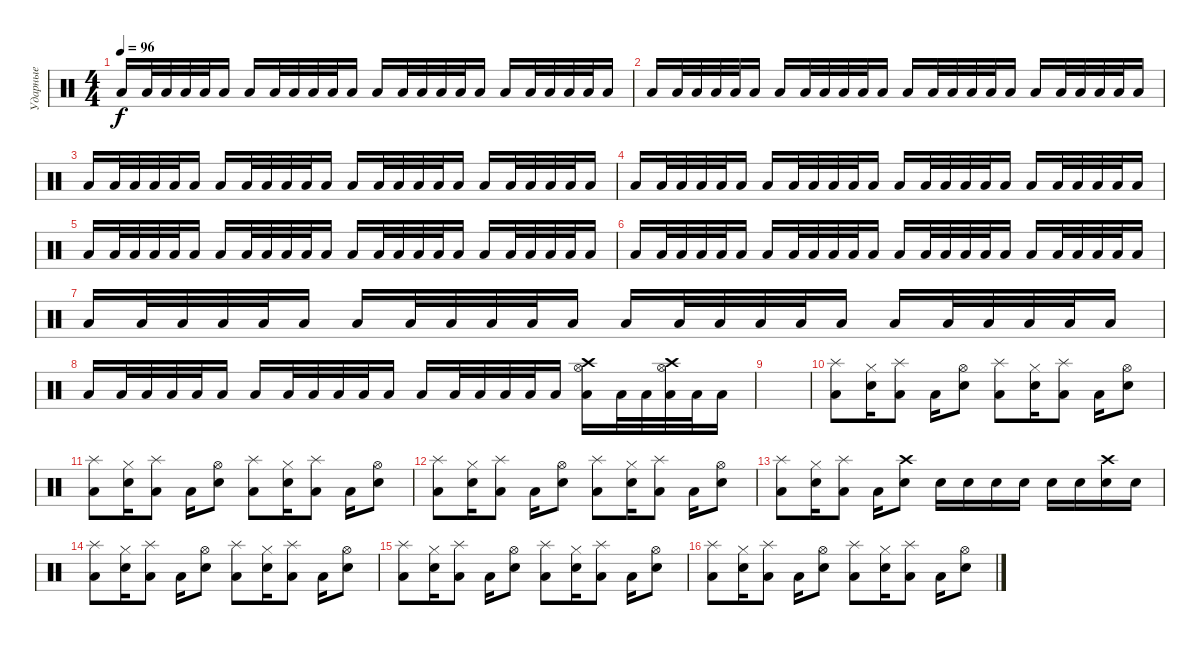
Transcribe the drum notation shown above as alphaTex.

\track ("Ударные" "Ударные") {instrument percussion}
\staff {score}
\articulation defaults
\ts (4 4)
\tempo 96
\clef neutral
\ks c "Low Floor Tom (hit)".16{dy f} "Low Floor Tom (hit)".32 "Low Floor Tom (hit)".32 "Low Floor Tom (hit)".32 "Low Floor Tom (hit)".32 "Low Floor Tom (hit)".16 "Low Floor Tom (hit)".16 "Low Floor Tom (hit)".32 "Low Floor Tom (hit)".32 "Low Floor Tom (hit)".32 "Low Floor Tom (hit)".32 "Low Floor Tom (hit)".16 "Low Floor Tom (hit)".16 "Low Floor Tom (hit)".32 "Low Floor Tom (hit)".32 "Low Floor Tom (hit)".32 "Low Floor Tom (hit)".32 "Low Floor Tom (hit)".16 "Low Floor Tom (hit)".16 "Low Floor Tom (hit)".32 "Low Floor Tom (hit)".32 "Low Floor Tom (hit)".32 "Low Floor Tom (hit)".32 "Low Floor Tom (hit)".16
|
"Low Floor Tom (hit)".16 "Low Floor Tom (hit)".32 "Low Floor Tom (hit)".32 "Low Floor Tom (hit)".32 "Low Floor Tom (hit)".32 "Low Floor Tom (hit)".16 "Low Floor Tom (hit)".16 "Low Floor Tom (hit)".32 "Low Floor Tom (hit)".32 "Low Floor Tom (hit)".32 "Low Floor Tom (hit)".32 "Low Floor Tom (hit)".16 "Low Floor Tom (hit)".16 "Low Floor Tom (hit)".32 "Low Floor Tom (hit)".32 "Low Floor Tom (hit)".32 "Low Floor Tom (hit)".32 "Low Floor Tom (hit)".16 "Low Floor Tom (hit)".16 "Low Floor Tom (hit)".32 "Low Floor Tom (hit)".32 "Low Floor Tom (hit)".32 "Low Floor Tom (hit)".32 "Low Floor Tom (hit)".16 |
"Low Floor Tom (hit)".16 "Low Floor Tom (hit)".32 "Low Floor Tom (hit)".32 "Low Floor Tom (hit)".32 "Low Floor Tom (hit)".32 "Low Floor Tom (hit)".16 "Low Floor Tom (hit)".16 "Low Floor Tom (hit)".32 "Low Floor Tom (hit)".32 "Low Floor Tom (hit)".32 "Low Floor Tom (hit)".32 "Low Floor Tom (hit)".16 "Low Floor Tom (hit)".16 "Low Floor Tom (hit)".32 "Low Floor Tom (hit)".32 "Low Floor Tom (hit)".32 "Low Floor Tom (hit)".32 "Low Floor Tom (hit)".16 "Low Floor Tom (hit)".16 "Low Floor Tom (hit)".32 "Low Floor Tom (hit)".32 "Low Floor Tom (hit)".32 "Low Floor Tom (hit)".32 "Low Floor Tom (hit)".16 |
"Low Floor Tom (hit)".16 "Low Floor Tom (hit)".32 "Low Floor Tom (hit)".32 "Low Floor Tom (hit)".32 "Low Floor Tom (hit)".32 "Low Floor Tom (hit)".16 "Low Floor Tom (hit)".16 "Low Floor Tom (hit)".32 "Low Floor Tom (hit)".32 "Low Floor Tom (hit)".32 "Low Floor Tom (hit)".32 "Low Floor Tom (hit)".16 "Low Floor Tom (hit)".16 "Low Floor Tom (hit)".32 "Low Floor Tom (hit)".32 "Low Floor Tom (hit)".32 "Low Floor Tom (hit)".32 "Low Floor Tom (hit)".16 "Low Floor Tom (hit)".16 "Low Floor Tom (hit)".32 "Low Floor Tom (hit)".32 "Low Floor Tom (hit)".32 "Low Floor Tom (hit)".32 "Low Floor Tom (hit)".16 |
"Low Floor Tom (hit)".16 "Low Floor Tom (hit)".32 "Low Floor Tom (hit)".32 "Low Floor Tom (hit)".32 "Low Floor Tom (hit)".32 "Low Floor Tom (hit)".16 "Low Floor Tom (hit)".16 "Low Floor Tom (hit)".32 "Low Floor Tom (hit)".32 "Low Floor Tom (hit)".32 "Low Floor Tom (hit)".32 "Low Floor Tom (hit)".16 "Low Floor Tom (hit)".16 "Low Floor Tom (hit)".32 "Low Floor Tom (hit)".32 "Low Floor Tom (hit)".32 "Low Floor Tom (hit)".32 "Low Floor Tom (hit)".16 "Low Floor Tom (hit)".16 "Low Floor Tom (hit)".32 "Low Floor Tom (hit)".32 "Low Floor Tom (hit)".32 "Low Floor Tom (hit)".32 "Low Floor Tom (hit)".16 |
"Low Floor Tom (hit)".16 "Low Floor Tom (hit)".32 "Low Floor Tom (hit)".32 "Low Floor Tom (hit)".32 "Low Floor Tom (hit)".32 "Low Floor Tom (hit)".16 "Low Floor Tom (hit)".16 "Low Floor Tom (hit)".32 "Low Floor Tom (hit)".32 "Low Floor Tom (hit)".32 "Low Floor Tom (hit)".32 "Low Floor Tom (hit)".16 "Low Floor Tom (hit)".16 "Low Floor Tom (hit)".32 "Low Floor Tom (hit)".32 "Low Floor Tom (hit)".32 "Low Floor Tom (hit)".32 "Low Floor Tom (hit)".16 "Low Floor Tom (hit)".16 "Low Floor Tom (hit)".32 "Low Floor Tom (hit)".32 "Low Floor Tom (hit)".32 "Low Floor Tom (hit)".32 "Low Floor Tom (hit)".16 |
"Low Floor Tom (hit)".16 "Low Floor Tom (hit)".32 "Low Floor Tom (hit)".32 "Low Floor Tom (hit)".32 "Low Floor Tom (hit)".32 "Low Floor Tom (hit)".16 "Low Floor Tom (hit)".16 "Low Floor Tom (hit)".32 "Low Floor Tom (hit)".32 "Low Floor Tom (hit)".32 "Low Floor Tom (hit)".32 "Low Floor Tom (hit)".16 "Low Floor Tom (hit)".16 "Low Floor Tom (hit)".32 "Low Floor Tom (hit)".32 "Low Floor Tom (hit)".32 "Low Floor Tom (hit)".32 "Low Floor Tom (hit)".16 "Low Floor Tom (hit)".16 "Low Floor Tom (hit)".32 "Low Floor Tom (hit)".32 "Low Floor Tom (hit)".32 "Low Floor Tom (hit)".32 "Low Floor Tom (hit)".16 |
"Low Floor Tom (hit)".16 "Low Floor Tom (hit)".32 "Low Floor Tom (hit)".32 "Low Floor Tom (hit)".32 "Low Floor Tom (hit)".32 "Low Floor Tom (hit)".16 "Low Floor Tom (hit)".16 "Low Floor Tom (hit)".32 "Low Floor Tom (hit)".32 "Low Floor Tom (hit)".32 "Low Floor Tom (hit)".32 "Low Floor Tom (hit)".16 "Low Floor Tom (hit)".16 "Low Floor Tom (hit)".32 "Low Floor Tom (hit)".32 "Low Floor Tom (hit)".32 "Low Floor Tom (hit)".32 "Low Floor Tom (hit)".16 ("Low Floor Tom (hit)" "Crash high (hit)" "Hi-Hat (open)").16 "Low Floor Tom (hit)".32 "Low Floor Tom (hit)".32 ("Low Floor Tom (hit)" "Hi-Hat (open)" "Crash high (hit)").32 "Low Floor Tom (hit)".32 "Low Floor Tom (hit)".16 |
|
("Low Floor Tom (hit)" "Splash (hit)").8 ("Electric Snare (hit)" "Hi-Hat (closed)").16 ("Low Floor Tom (hit)" "Splash (hit)").8 "Low Floor Tom (hit)".16 ("Electric Snare (hit)" "Hi-Hat (open)").8 ("Low Floor Tom (hit)" "Splash (hit)").8 ("Electric Snare (hit)" "Hi-Hat (closed)").16 ("Low Floor Tom (hit)" "Splash (hit)").8 "Low Floor Tom (hit)".16 ("Electric Snare (hit)" "Hi-Hat (open)").8 |
("Low Floor Tom (hit)" "Splash (hit)").8 ("Electric Snare (hit)" "Hi-Hat (closed)").16 ("Low Floor Tom (hit)" "Splash (hit)").8 "Low Floor Tom (hit)".16 ("Electric Snare (hit)" "Hi-Hat (open)").8 ("Low Floor Tom (hit)" "Splash (hit)").8 ("Electric Snare (hit)" "Hi-Hat (closed)").16 ("Low Floor Tom (hit)" "Splash (hit)").8 "Low Floor Tom (hit)".16 ("Electric Snare (hit)" "Hi-Hat (open)").8 |
("Low Floor Tom (hit)" "Splash (hit)").8 ("Electric Snare (hit)" "Hi-Hat (closed)").16 ("Low Floor Tom (hit)" "Splash (hit)").8 "Low Floor Tom (hit)".16 ("Electric Snare (hit)" "Hi-Hat (open)").8 ("Low Floor Tom (hit)" "Splash (hit)").8 ("Electric Snare (hit)" "Hi-Hat (closed)").16 ("Low Floor Tom (hit)" "Splash (hit)").8 "Low Floor Tom (hit)".16 ("Electric Snare (hit)" "Hi-Hat (open)").8 |
("Low Floor Tom (hit)" "Splash (hit)").8 ("Electric Snare (hit)" "Hi-Hat (closed)").16 ("Low Floor Tom (hit)" "Splash (hit)").8 "Low Floor Tom (hit)".16 ("Electric Snare (hit)" "Crash high (hit)").8 "Electric Snare (hit)".16 "Electric Snare (hit)".16 "Electric Snare (hit)".16 "Electric Snare (hit)".16 "Electric Snare (hit)".16 "Electric Snare (hit)".16 ("Electric Snare (hit)" "Crash high (hit)").16 "Electric Snare (hit)".16 |
("Low Floor Tom (hit)" "Splash (hit)").8 ("Electric Snare (hit)" "Hi-Hat (closed)").16 ("Low Floor Tom (hit)" "Splash (hit)").8 "Low Floor Tom (hit)".16 ("Electric Snare (hit)" "Hi-Hat (open)").8 ("Low Floor Tom (hit)" "Splash (hit)").8 ("Electric Snare (hit)" "Hi-Hat (closed)").16 ("Low Floor Tom (hit)" "Splash (hit)").8 "Low Floor Tom (hit)".16 ("Electric Snare (hit)" "Hi-Hat (open)").8 |
("Low Floor Tom (hit)" "Splash (hit)").8 ("Electric Snare (hit)" "Hi-Hat (closed)").16 ("Low Floor Tom (hit)" "Splash (hit)").8 "Low Floor Tom (hit)".16 ("Electric Snare (hit)" "Hi-Hat (open)").8 ("Low Floor Tom (hit)" "Splash (hit)").8 ("Electric Snare (hit)" "Hi-Hat (closed)").16 ("Low Floor Tom (hit)" "Splash (hit)").8 "Low Floor Tom (hit)".16 ("Electric Snare (hit)" "Hi-Hat (open)").8 |
("Low Floor Tom (hit)" "Splash (hit)").8 ("Electric Snare (hit)" "Hi-Hat (closed)").16 ("Low Floor Tom (hit)" "Splash (hit)").8 "Low Floor Tom (hit)".16 ("Electric Snare (hit)" "Hi-Hat (open)").8 ("Low Floor Tom (hit)" "Splash (hit)").8 ("Electric Snare (hit)" "Hi-Hat (closed)").16 ("Low Floor Tom (hit)" "Splash (hit)").8 "Low Floor Tom (hit)".16 ("Electric Snare (hit)" "Hi-Hat (open)").8
